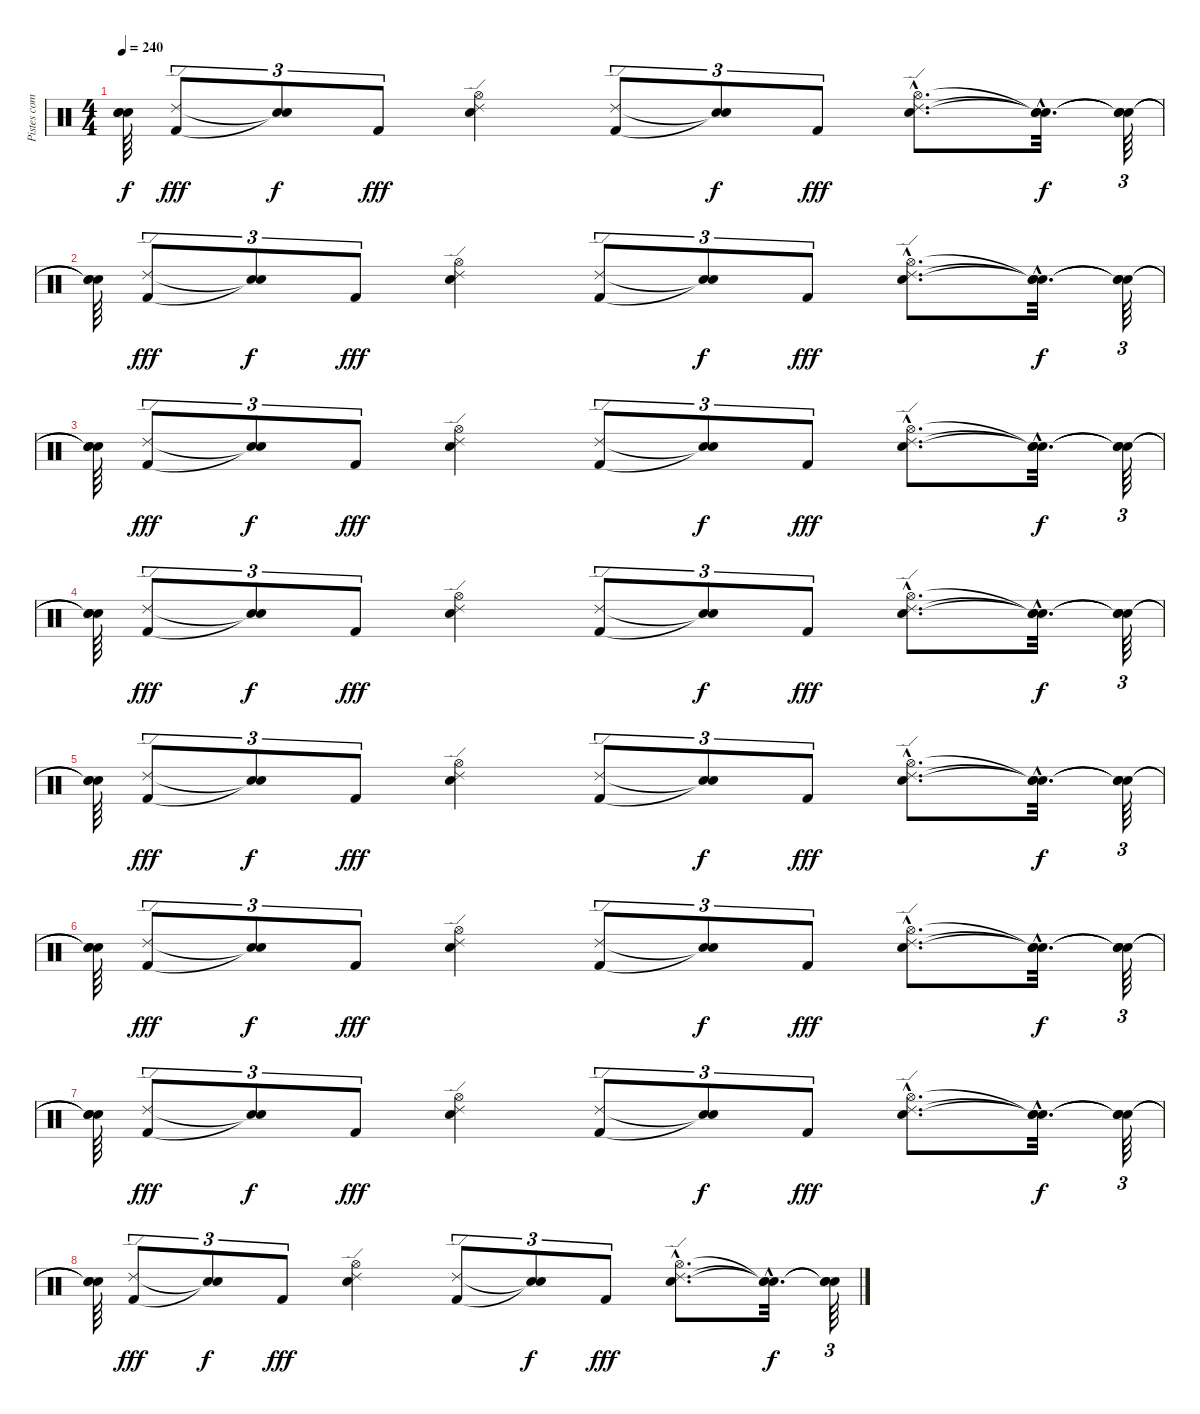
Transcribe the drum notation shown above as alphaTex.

\track ("Pistes combinées" "Pistes com") {instrument percussion}
\staff {score}
\articulation defaults
\ts (4 4)
\tempo 240
\clef neutral
\ks c
("Snare (hit)"{t} "Snare (hit)"{t} "Snare (hit)"{t}).64{dy f} ("Kick (hit) 2" "Ride (edge) 2").8{tu (3 2) dy fff} ("Snare (hit)"{t} "Snare (hit)"{t}).8{tu (3 2) dy f} "Kick (hit) 2".8{tu (3 2) dy fff} ("Electric Snare (hit)" "Ride (edge) 2" "Hi-Hat (open)").4 ("Kick (hit) 2" "Ride (edge) 2").8{tu (3 2)} ("Snare (hit)"{t} "Snare (hit)"{t}).8{tu (3 2) dy f} "Kick (hit) 2".8{tu (3 2) dy fff} ("Electric Snare (hit)"{hac} "Ride (edge) 2"{hac} "Hi-Hat (open)"{hac}).8{d} ("Snare (hit)"{hac t} "Snare (hit)"{hac t} "Snare (hit)"{hac t}).32{d dy f} ("Snare (hit)"{t} "Snare (hit)"{t} "Snare (hit)"{t}).64{tu (3 2)} |
("Snare (hit)"{t} "Snare (hit)"{t} "Snare (hit)"{t}).64 ("Kick (hit) 2" "Ride (edge) 2").8{tu (3 2) dy fff} ("Snare (hit)"{t} "Snare (hit)"{t}).8{tu (3 2) dy f} "Kick (hit) 2".8{tu (3 2) dy fff} ("Electric Snare (hit)" "Ride (edge) 2" "Hi-Hat (open)").4 ("Kick (hit) 2" "Ride (edge) 2").8{tu (3 2)} ("Snare (hit)"{t} "Snare (hit)"{t}).8{tu (3 2) dy f} "Kick (hit) 2".8{tu (3 2) dy fff} ("Electric Snare (hit)"{hac} "Ride (edge) 2"{hac} "Hi-Hat (open)"{hac}).8{d} ("Snare (hit)"{hac t} "Snare (hit)"{hac t} "Snare (hit)"{hac t}).32{d dy f} ("Snare (hit)"{t} "Snare (hit)"{t} "Snare (hit)"{t}).64{tu (3 2)} |
("Snare (hit)"{t} "Snare (hit)"{t} "Snare (hit)"{t}).64 ("Kick (hit) 2" "Ride (edge) 2").8{tu (3 2) dy fff} ("Snare (hit)"{t} "Snare (hit)"{t}).8{tu (3 2) dy f} "Kick (hit) 2".8{tu (3 2) dy fff} ("Electric Snare (hit)" "Ride (edge) 2" "Hi-Hat (open)").4 ("Kick (hit) 2" "Ride (edge) 2").8{tu (3 2)} ("Snare (hit)"{t} "Snare (hit)"{t}).8{tu (3 2) dy f} "Kick (hit) 2".8{tu (3 2) dy fff} ("Electric Snare (hit)"{hac} "Ride (edge) 2"{hac} "Hi-Hat (open)"{hac}).8{d} ("Snare (hit)"{hac t} "Snare (hit)"{hac t} "Snare (hit)"{hac t}).32{d dy f} ("Snare (hit)"{t} "Snare (hit)"{t} "Snare (hit)"{t}).64{tu (3 2)} |
("Snare (hit)"{t} "Snare (hit)"{t} "Snare (hit)"{t}).64 ("Kick (hit) 2" "Ride (edge) 2").8{tu (3 2) dy fff} ("Snare (hit)"{t} "Snare (hit)"{t}).8{tu (3 2) dy f} "Kick (hit) 2".8{tu (3 2) dy fff} ("Electric Snare (hit)" "Ride (edge) 2" "Hi-Hat (open)").4 ("Kick (hit) 2" "Ride (edge) 2").8{tu (3 2)} ("Snare (hit)"{t} "Snare (hit)"{t}).8{tu (3 2) dy f} "Kick (hit) 2".8{tu (3 2) dy fff} ("Electric Snare (hit)"{hac} "Ride (edge) 2"{hac} "Hi-Hat (open)"{hac}).8{d} ("Snare (hit)"{hac t} "Snare (hit)"{hac t} "Snare (hit)"{hac t}).32{d dy f} ("Snare (hit)"{t} "Snare (hit)"{t} "Snare (hit)"{t}).64{tu (3 2)} |
("Snare (hit)"{t} "Snare (hit)"{t} "Snare (hit)"{t}).64 ("Kick (hit) 2" "Ride (edge) 2").8{tu (3 2) dy fff} ("Snare (hit)"{t} "Snare (hit)"{t}).8{tu (3 2) dy f} "Kick (hit) 2".8{tu (3 2) dy fff} ("Electric Snare (hit)" "Ride (edge) 2" "Hi-Hat (open)").4 ("Kick (hit) 2" "Ride (edge) 2").8{tu (3 2)} ("Snare (hit)"{t} "Snare (hit)"{t}).8{tu (3 2) dy f} "Kick (hit) 2".8{tu (3 2) dy fff} ("Electric Snare (hit)"{hac} "Ride (edge) 2"{hac} "Hi-Hat (open)"{hac}).8{d} ("Snare (hit)"{hac t} "Snare (hit)"{hac t} "Snare (hit)"{hac t}).32{d dy f} ("Snare (hit)"{t} "Snare (hit)"{t} "Snare (hit)"{t}).64{tu (3 2)} |
("Snare (hit)"{t} "Snare (hit)"{t} "Snare (hit)"{t}).64 ("Kick (hit) 2" "Ride (edge) 2").8{tu (3 2) dy fff} ("Snare (hit)"{t} "Snare (hit)"{t}).8{tu (3 2) dy f} "Kick (hit) 2".8{tu (3 2) dy fff} ("Electric Snare (hit)" "Ride (edge) 2" "Hi-Hat (open)").4 ("Kick (hit) 2" "Ride (edge) 2").8{tu (3 2)} ("Snare (hit)"{t} "Snare (hit)"{t}).8{tu (3 2) dy f} "Kick (hit) 2".8{tu (3 2) dy fff} ("Electric Snare (hit)"{hac} "Ride (edge) 2"{hac} "Hi-Hat (open)"{hac}).8{d} ("Snare (hit)"{hac t} "Snare (hit)"{hac t} "Snare (hit)"{hac t}).32{d dy f} ("Snare (hit)"{t} "Snare (hit)"{t} "Snare (hit)"{t}).64{tu (3 2)} |
("Snare (hit)"{t} "Snare (hit)"{t} "Snare (hit)"{t}).64 ("Kick (hit) 2" "Ride (edge) 2").8{tu (3 2) dy fff} ("Snare (hit)"{t} "Snare (hit)"{t}).8{tu (3 2) dy f} "Kick (hit) 2".8{tu (3 2) dy fff} ("Electric Snare (hit)" "Ride (edge) 2" "Hi-Hat (open)").4 ("Kick (hit) 2" "Ride (edge) 2").8{tu (3 2)} ("Snare (hit)"{t} "Snare (hit)"{t}).8{tu (3 2) dy f} "Kick (hit) 2".8{tu (3 2) dy fff} ("Electric Snare (hit)"{hac} "Ride (edge) 2"{hac} "Hi-Hat (open)"{hac}).8{d} ("Snare (hit)"{hac t} "Snare (hit)"{hac t} "Snare (hit)"{hac t}).32{d dy f} ("Snare (hit)"{t} "Snare (hit)"{t} "Snare (hit)"{t}).64{tu (3 2)} |
("Snare (hit)"{t} "Snare (hit)"{t} "Snare (hit)"{t}).64 ("Kick (hit) 2" "Ride (edge) 2").8{tu (3 2) dy fff} ("Snare (hit)"{t} "Snare (hit)"{t}).8{tu (3 2) dy f} "Kick (hit) 2".8{tu (3 2) dy fff} ("Electric Snare (hit)" "Ride (edge) 2" "Hi-Hat (open)").4 ("Kick (hit) 2" "Ride (edge) 2").8{tu (3 2)} ("Snare (hit)"{t} "Snare (hit)"{t}).8{tu (3 2) dy f} "Kick (hit) 2".8{tu (3 2) dy fff} ("Electric Snare (hit)"{hac} "Ride (edge) 2"{hac} "Hi-Hat (open)"{hac}).8{d} ("Snare (hit)"{hac t} "Snare (hit)"{hac t} "Snare (hit)"{hac t}).32{d dy f} ("Snare (hit)"{t} "Snare (hit)"{t} "Snare (hit)"{t}).64{tu (3 2)}
